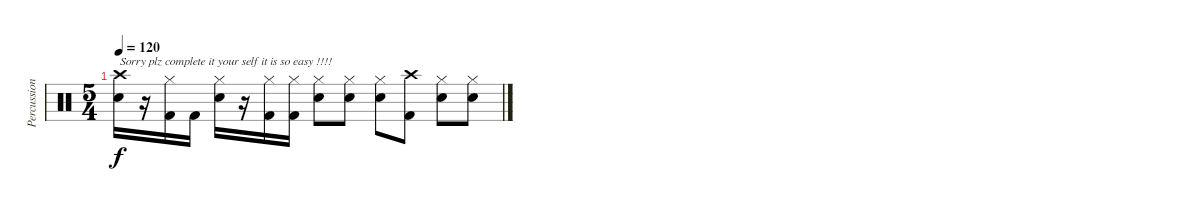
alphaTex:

\track ("Percussion" "Percussion") {instrument percussion}
\staff {score}
\articulation defaults
\ts (5 4)
\tempo 120
\clef neutral
\ks c
("Crash high (hit)" "Snare (hit) 2").16{txt "Sorry plz complete it your self it is so easy !!!!" dy f} r.16 ("Hi-Hat (closed)" "Kick (hit) 2").16 "Kick (hit) 2".16 ("Hi-Hat (closed)" "Snare (hit) 2").16 r.16 ("Hi-Hat (closed)" "Kick (hit) 2").16 ("Hi-Hat (closed)" "Kick (hit) 2").16 ("Hi-Hat (closed)" "Snare (hit) 2").8 ("Hi-Hat (closed)" "Snare (hit) 2").8 ("Hi-Hat (closed)" "Snare (hit) 2").8 ("Crash high (hit)" "Kick (hit) 2").8 ("Hi-Hat (closed)" "Snare (hit) 2").8 ("Hi-Hat (closed)" "Snare (hit) 2").8
